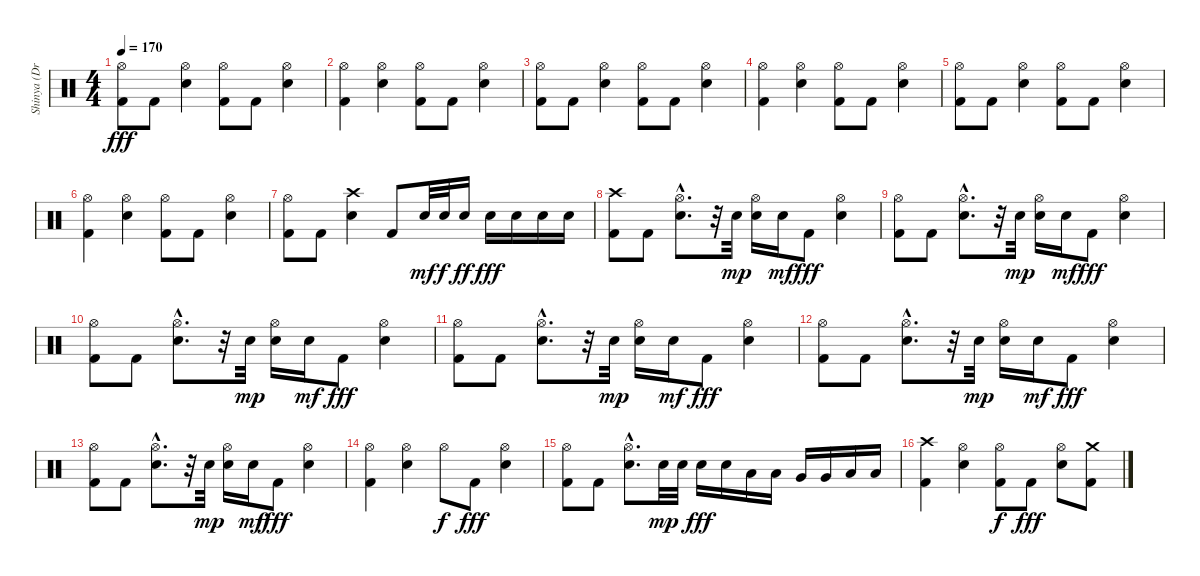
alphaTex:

\track ("Shinya (Drums)" "Shinya (Dr") {instrument percussion}
\staff {score}
\articulation defaults
\ts (4 4)
\tempo 170
\clef neutral
\ks c
("Hi-Hat (open)" "Kick (hit) 2").8{dy fff} "Kick (hit) 2".8 ("Hi-Hat (open)" "Electric Snare (hit)").4 ("Hi-Hat (open)" "Kick (hit) 2").8 "Kick (hit) 2".8 ("Hi-Hat (open)" "Electric Snare (hit)").4 |
("Hi-Hat (open)" "Kick (hit) 2").4 ("Hi-Hat (open)" "Electric Snare (hit)").4 ("Hi-Hat (open)" "Kick (hit) 2").8 "Kick (hit) 2".8 ("Hi-Hat (open)" "Electric Snare (hit)").4 |
("Hi-Hat (open)" "Kick (hit) 2").8 "Kick (hit) 2".8 ("Hi-Hat (open)" "Electric Snare (hit)").4 ("Hi-Hat (open)" "Kick (hit) 2").8 "Kick (hit) 2".8 ("Hi-Hat (open)" "Electric Snare (hit)").4 |
("Hi-Hat (open)" "Kick (hit) 2").4 ("Hi-Hat (open)" "Electric Snare (hit)").4 ("Hi-Hat (open)" "Kick (hit) 2").8 "Kick (hit) 2".8 ("Hi-Hat (open)" "Electric Snare (hit)").4 |
("Hi-Hat (open)" "Kick (hit) 2").8 "Kick (hit) 2".8 ("Hi-Hat (open)" "Electric Snare (hit)").4 ("Hi-Hat (open)" "Kick (hit) 2").8 "Kick (hit) 2".8 ("Hi-Hat (open)" "Electric Snare (hit)").4 |
("Hi-Hat (open)" "Kick (hit) 2").4 ("Hi-Hat (open)" "Electric Snare (hit)").4 ("Hi-Hat (open)" "Kick (hit) 2").8 "Kick (hit) 2".8 ("Hi-Hat (open)" "Electric Snare (hit)").4 |
("Hi-Hat (open)" "Kick (hit) 2").8 "Kick (hit) 2".8 ("Crash high (hit)" "Electric Snare (hit)").4 "Kick (hit) 2".8 "Electric Snare (hit)".32{dy mf} "Electric Snare (hit)".32{dy f} "Electric Snare (hit)".16{dy ff} "Electric Snare (hit)".16{dy fff} "Electric Snare (hit)".16 "Electric Snare (hit)".16 "Electric Snare (hit)".16 |
("Crash high (hit)" "Kick (hit) 2").8 "Kick (hit) 2".8 ("Hi-Hat (open)"{hac} "Electric Snare (hit)"{hac}).8{d} r.32 "Electric Snare (hit)".32{dy mp} ("Hi-Hat (open)" "Electric Snare (hit)").16 "Electric Snare (hit)".16{dy mf} "Kick (hit) 2".8{dy fff} ("Hi-Hat (open)" "Electric Snare (hit)").4 |
("Hi-Hat (open)" "Kick (hit) 2").8 "Kick (hit) 2".8 ("Hi-Hat (open)"{hac} "Electric Snare (hit)"{hac}).8{d} r.32 "Electric Snare (hit)".32{dy mp} ("Hi-Hat (open)" "Electric Snare (hit)").16 "Electric Snare (hit)".16{dy mf} "Kick (hit) 2".8{dy fff} ("Hi-Hat (open)" "Electric Snare (hit)").4 |
("Hi-Hat (open)" "Kick (hit) 2").8 "Kick (hit) 2".8 ("Hi-Hat (open)"{hac} "Electric Snare (hit)"{hac}).8{d} r.32 "Electric Snare (hit)".32{dy mp} ("Hi-Hat (open)" "Electric Snare (hit)").16 "Electric Snare (hit)".16{dy mf} "Kick (hit) 2".8{dy fff} ("Hi-Hat (open)" "Electric Snare (hit)").4 |
("Hi-Hat (open)" "Kick (hit) 2").8 "Kick (hit) 2".8 ("Hi-Hat (open)"{hac} "Electric Snare (hit)"{hac}).8{d} r.32 "Electric Snare (hit)".32{dy mp} ("Hi-Hat (open)" "Electric Snare (hit)").16 "Electric Snare (hit)".16{dy mf} "Kick (hit) 2".8{dy fff} ("Hi-Hat (open)" "Electric Snare (hit)").4 |
("Hi-Hat (open)" "Kick (hit) 2").8 "Kick (hit) 2".8 ("Hi-Hat (open)"{hac} "Electric Snare (hit)"{hac}).8{d} r.32 "Electric Snare (hit)".32{dy mp} ("Hi-Hat (open)" "Electric Snare (hit)").16 "Electric Snare (hit)".16{dy mf} "Kick (hit) 2".8{dy fff} ("Hi-Hat (open)" "Electric Snare (hit)").4 |
("Hi-Hat (open)" "Kick (hit) 2").8 "Kick (hit) 2".8 ("Hi-Hat (open)"{hac} "Electric Snare (hit)"{hac}).8{d} r.32 "Electric Snare (hit)".32{dy mp} ("Hi-Hat (open)" "Electric Snare (hit)").16 "Electric Snare (hit)".16{dy mf} "Kick (hit) 2".8{dy fff} ("Hi-Hat (open)" "Electric Snare (hit)").4 |
("Hi-Hat (open)" "Kick (hit) 2").4 ("Hi-Hat (open)" "Electric Snare (hit)").4 "Hi-Hat (open)".8{dy f} "Kick (hit) 2".8{dy fff} ("Hi-Hat (open)" "Electric Snare (hit)").4 |
("Hi-Hat (open)" "Kick (hit) 2").8 "Kick (hit) 2".8 ("Hi-Hat (open)"{hac} "Electric Snare (hit)"{hac}).8{d} "Electric Snare (hit)".32{dy mp} "Electric Snare (hit)".32 "Electric Snare (hit)".16{dy fff} "Electric Snare (hit)".16 "Low Tom (hit)".16 "Low Tom (hit)".16 "Very Low Tom (hit)".16 "Very Low Tom (hit)".16 "Low Floor Tom (hit)".16 "Low Floor Tom (hit)".16 |
("Crash high (hit)" "Kick (hit) 2").4 ("Hi-Hat (open)" "Electric Snare (hit)").4 ("Hi-Hat (open)" "Kick (hit) 2").8{dy f} "Kick (hit) 2".8{dy fff} ("Hi-Hat (open)" "Electric Snare (hit)").8 ("Crash medium (hit)" "Kick (hit) 2").8
